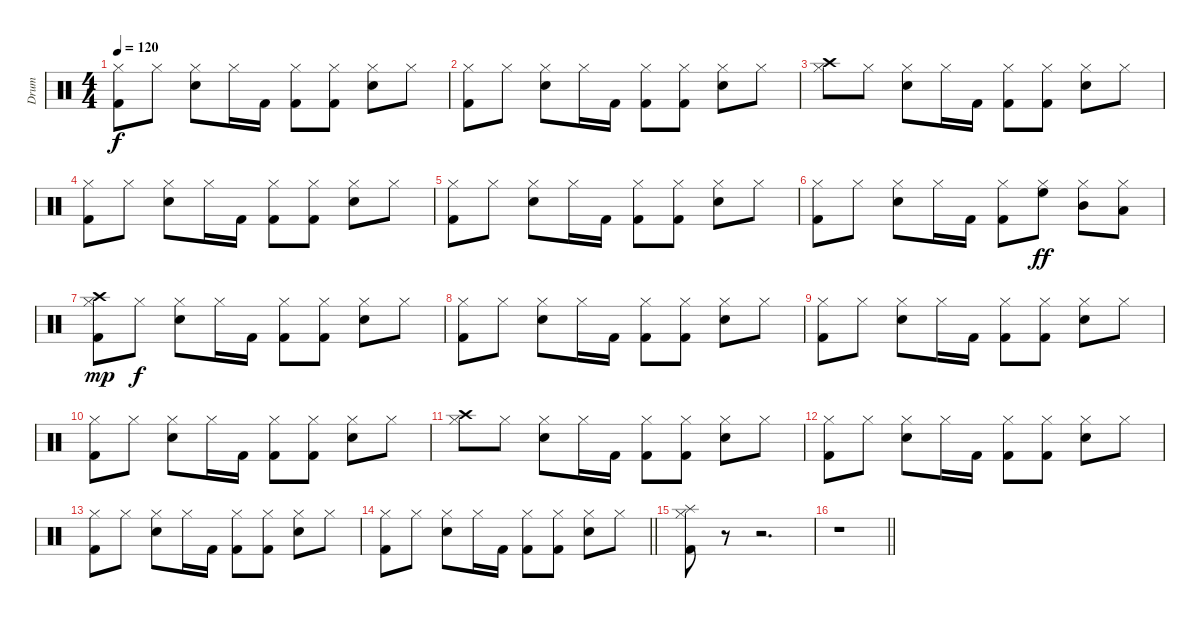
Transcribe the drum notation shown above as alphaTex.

\track ("Drum" "Drum") {instrument percussion}
\staff {score}
\articulation defaults
\ts (4 4)
\tempo 120
\clef neutral
\ks c
("Kick (hit) 2" "Hi-Hat (closed)").8{dy f} "Hi-Hat (closed)".8 ("Electric Snare (hit)" "Hi-Hat (closed)").8 "Hi-Hat (closed)".16 "Kick (hit) 2".16 ("Kick (hit) 2" "Hi-Hat (closed)").8 ("Kick (hit) 2" "Hi-Hat (closed)").8 ("Electric Snare (hit)" "Hi-Hat (closed)").8 "Hi-Hat (closed)".8 |
("Kick (hit) 2" "Hi-Hat (closed)").8 "Hi-Hat (closed)".8 ("Electric Snare (hit)" "Hi-Hat (closed)").8 "Hi-Hat (closed)".16 "Kick (hit) 2".16 ("Kick (hit) 2" "Hi-Hat (closed)").8 ("Kick (hit) 2" "Hi-Hat (closed)").8 ("Electric Snare (hit)" "Hi-Hat (closed)").8 "Hi-Hat (closed)".8 |
("Crash high (hit)" "Hi-Hat (closed)").8 "Hi-Hat (closed)".8 ("Electric Snare (hit)" "Hi-Hat (closed)").8 "Hi-Hat (closed)".16 "Kick (hit) 2".16 ("Kick (hit) 2" "Hi-Hat (closed)").8 ("Kick (hit) 2" "Hi-Hat (closed)").8 ("Electric Snare (hit)" "Hi-Hat (closed)").8 "Hi-Hat (closed)".8 |
("Kick (hit) 2" "Hi-Hat (closed)").8 "Hi-Hat (closed)".8 ("Electric Snare (hit)" "Hi-Hat (closed)").8 "Hi-Hat (closed)".16 "Kick (hit) 2".16 ("Kick (hit) 2" "Hi-Hat (closed)").8 ("Kick (hit) 2" "Hi-Hat (closed)").8 ("Electric Snare (hit)" "Hi-Hat (closed)").8 "Hi-Hat (closed)".8 |
("Kick (hit) 2" "Hi-Hat (closed)").8 "Hi-Hat (closed)".8 ("Electric Snare (hit)" "Hi-Hat (closed)").8 "Hi-Hat (closed)".16 "Kick (hit) 2".16 ("Kick (hit) 2" "Hi-Hat (closed)").8 ("Kick (hit) 2" "Hi-Hat (closed)").8 ("Electric Snare (hit)" "Hi-Hat (closed)").8 "Hi-Hat (closed)".8 |
("Kick (hit) 2" "Hi-Hat (closed)").8 "Hi-Hat (closed)".8 ("Electric Snare (hit)" "Hi-Hat (closed)").8 "Hi-Hat (closed)".16 "Kick (hit) 2".16 ("Kick (hit) 2" "Hi-Hat (closed)").8 ("Hi-Hat (closed)" "High Floor Tom (hit)").8{dy ff} ("Hi-Hat (closed)" "Mid Tom (hit)").8 ("Hi-Hat (closed)" "Low Tom (hit)").8 |
("Kick (hit) 2" "Hi-Hat (closed)" "Crash high (hit)").8{dy mp} "Hi-Hat (closed)".8{dy f} ("Electric Snare (hit)" "Hi-Hat (closed)").8 "Hi-Hat (closed)".16 "Kick (hit) 2".16 ("Kick (hit) 2" "Hi-Hat (closed)").8 ("Kick (hit) 2" "Hi-Hat (closed)").8 ("Electric Snare (hit)" "Hi-Hat (closed)").8 "Hi-Hat (closed)".8 |
("Kick (hit) 2" "Hi-Hat (closed)").8 "Hi-Hat (closed)".8 ("Electric Snare (hit)" "Hi-Hat (closed)").8 "Hi-Hat (closed)".16 "Kick (hit) 2".16 ("Kick (hit) 2" "Hi-Hat (closed)").8 ("Kick (hit) 2" "Hi-Hat (closed)").8 ("Electric Snare (hit)" "Hi-Hat (closed)").8 "Hi-Hat (closed)".8 |
("Kick (hit) 2" "Hi-Hat (closed)").8 "Hi-Hat (closed)".8 ("Electric Snare (hit)" "Hi-Hat (closed)").8 "Hi-Hat (closed)".16 "Kick (hit) 2".16 ("Kick (hit) 2" "Hi-Hat (closed)").8 ("Kick (hit) 2" "Hi-Hat (closed)").8 ("Electric Snare (hit)" "Hi-Hat (closed)").8 "Hi-Hat (closed)".8 |
("Kick (hit) 2" "Hi-Hat (closed)").8 "Hi-Hat (closed)".8 ("Electric Snare (hit)" "Hi-Hat (closed)").8 "Hi-Hat (closed)".16 "Kick (hit) 2".16 ("Kick (hit) 2" "Hi-Hat (closed)").8 ("Kick (hit) 2" "Hi-Hat (closed)").8 ("Electric Snare (hit)" "Hi-Hat (closed)").8 "Hi-Hat (closed)".8 |
("Crash high (hit)" "Hi-Hat (closed)").8 "Hi-Hat (closed)".8 ("Electric Snare (hit)" "Hi-Hat (closed)").8 "Hi-Hat (closed)".16 "Kick (hit) 2".16 ("Kick (hit) 2" "Hi-Hat (closed)").8 ("Kick (hit) 2" "Hi-Hat (closed)").8 ("Electric Snare (hit)" "Hi-Hat (closed)").8 "Hi-Hat (closed)".8 |
("Kick (hit) 2" "Hi-Hat (closed)").8 "Hi-Hat (closed)".8 ("Electric Snare (hit)" "Hi-Hat (closed)").8 "Hi-Hat (closed)".16 "Kick (hit) 2".16 ("Kick (hit) 2" "Hi-Hat (closed)").8 ("Kick (hit) 2" "Hi-Hat (closed)").8 ("Electric Snare (hit)" "Hi-Hat (closed)").8 "Hi-Hat (closed)".8 |
("Kick (hit) 2" "Hi-Hat (closed)").8 "Hi-Hat (closed)".8 ("Electric Snare (hit)" "Hi-Hat (closed)").8 "Hi-Hat (closed)".16 "Kick (hit) 2".16 ("Kick (hit) 2" "Hi-Hat (closed)").8 ("Kick (hit) 2" "Hi-Hat (closed)").8 ("Electric Snare (hit)" "Hi-Hat (closed)").8 "Hi-Hat (closed)".8 |
\barLineRight lightlight
("Kick (hit) 2" "Hi-Hat (closed)").8 "Hi-Hat (closed)".8 ("Electric Snare (hit)" "Hi-Hat (closed)").8 "Hi-Hat (closed)".16 "Kick (hit) 2".16 ("Kick (hit) 2" "Hi-Hat (closed)").8 ("Kick (hit) 2" "Hi-Hat (closed)").8 ("Electric Snare (hit)" "Hi-Hat (closed)").8 "Hi-Hat (closed)".8 |
("Kick (hit) 2" "Hi-Hat (closed)" "Splash (hit)").8 r.8 r.2{d} |
\barLineRight lightlight
r.1
